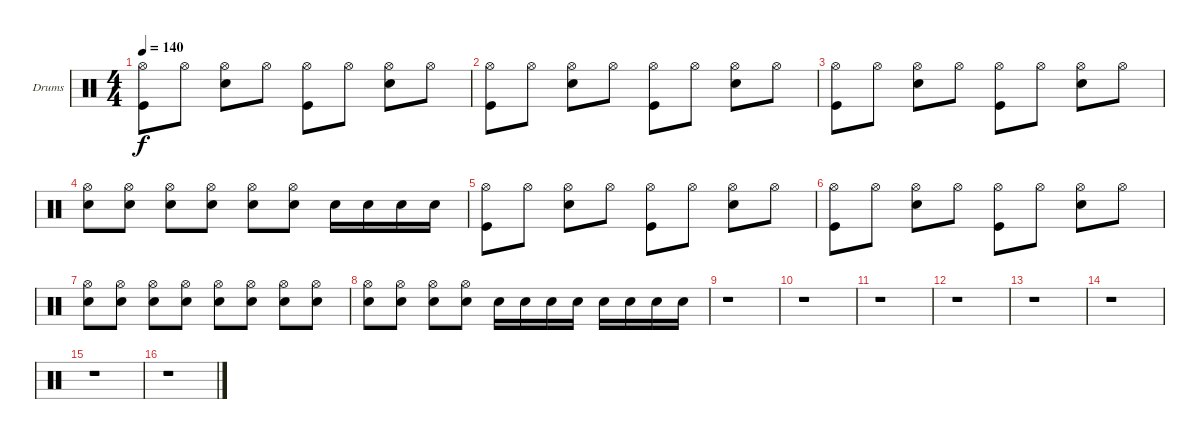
\bracketExtendMode groupsimilarinstruments
\firstSystemTrackNameOrientation horizontal
\otherSystemsTrackNameOrientation horizontal
\track ("Drumkit" "Drums") {instrument percussion}
\staff {score}
\articulation defaults
\ts (4 4)
\tempo 140
\clef neutral
\scale
0.333333
\ks c
("Hi-Hat (open)" "Kick (hit)").8{dy f} "Hi-Hat (open)".8 ("Hi-Hat (open)" "Snare (hit) 2").8 "Hi-Hat (open)".8 ("Hi-Hat (open)" "Kick (hit)").8 "Hi-Hat (open)".8 ("Hi-Hat (open)" "Snare (hit) 2").8 "Hi-Hat (open)".8 |
\scale
0.333333 ("Hi-Hat (open)" "Kick (hit)").8 "Hi-Hat (open)".8 ("Hi-Hat (open)" "Snare (hit) 2").8 "Hi-Hat (open)".8 ("Hi-Hat (open)" "Kick (hit)").8 "Hi-Hat (open)".8 ("Hi-Hat (open)" "Snare (hit) 2").8 "Hi-Hat (open)".8 |
\scale
0.333333 ("Hi-Hat (open)" "Kick (hit)").8 "Hi-Hat (open)".8 ("Hi-Hat (open)" "Snare (hit) 2").8 "Hi-Hat (open)".8 ("Hi-Hat (open)" "Kick (hit)").8 "Hi-Hat (open)".8 ("Hi-Hat (open)" "Snare (hit) 2").8 "Hi-Hat (open)".8 |
\scale
0.333333 ("Hi-Hat (open)" "Snare (hit) 2").8 ("Hi-Hat (open)" "Snare (hit) 2").8 ("Hi-Hat (open)" "Snare (hit) 2").8 ("Hi-Hat (open)" "Snare (hit) 2").8 ("Hi-Hat (open)" "Snare (hit) 2").8 ("Hi-Hat (open)" "Snare (hit) 2").8 "Snare (hit) 2".16 "Snare (hit) 2".16 "Snare (hit) 2".16 "Snare (hit) 2".16 |
("Hi-Hat (open)" "Kick (hit)").8 "Hi-Hat (open)".8 ("Hi-Hat (open)" "Snare (hit) 2").8 "Hi-Hat (open)".8 ("Hi-Hat (open)" "Kick (hit)").8 "Hi-Hat (open)".8 ("Hi-Hat (open)" "Snare (hit) 2").8 "Hi-Hat (open)".8 |
("Hi-Hat (open)" "Kick (hit)").8 "Hi-Hat (open)".8 ("Hi-Hat (open)" "Snare (hit) 2").8 "Hi-Hat (open)".8 ("Hi-Hat (open)" "Kick (hit)").8 "Hi-Hat (open)".8 ("Hi-Hat (open)" "Snare (hit) 2").8 "Hi-Hat (open)".8 |
("Hi-Hat (open)" "Snare (hit) 2").8 ("Hi-Hat (open)" "Snare (hit) 2").8 ("Hi-Hat (open)" "Snare (hit) 2").8 ("Hi-Hat (open)" "Snare (hit) 2").8 ("Hi-Hat (open)" "Snare (hit) 2").8 ("Hi-Hat (open)" "Snare (hit) 2").8 ("Hi-Hat (open)" "Snare (hit) 2").8 ("Hi-Hat (open)" "Snare (hit) 2").8 |
("Hi-Hat (open)" "Snare (hit) 2").8 ("Hi-Hat (open)" "Snare (hit) 2").8 ("Hi-Hat (open)" "Snare (hit) 2").8 ("Hi-Hat (open)" "Snare (hit) 2").8 "Snare (hit) 2".16 "Snare (hit) 2".16 "Snare (hit) 2".16 "Snare (hit) 2".16 "Snare (hit) 2".16 "Snare (hit) 2".16 "Snare (hit) 2".16 "Snare (hit) 2".16 |
r.1 |
r.1 |
r.1 |
r.1 |
r.1 |
r.1 |
r.1 |
r.1
